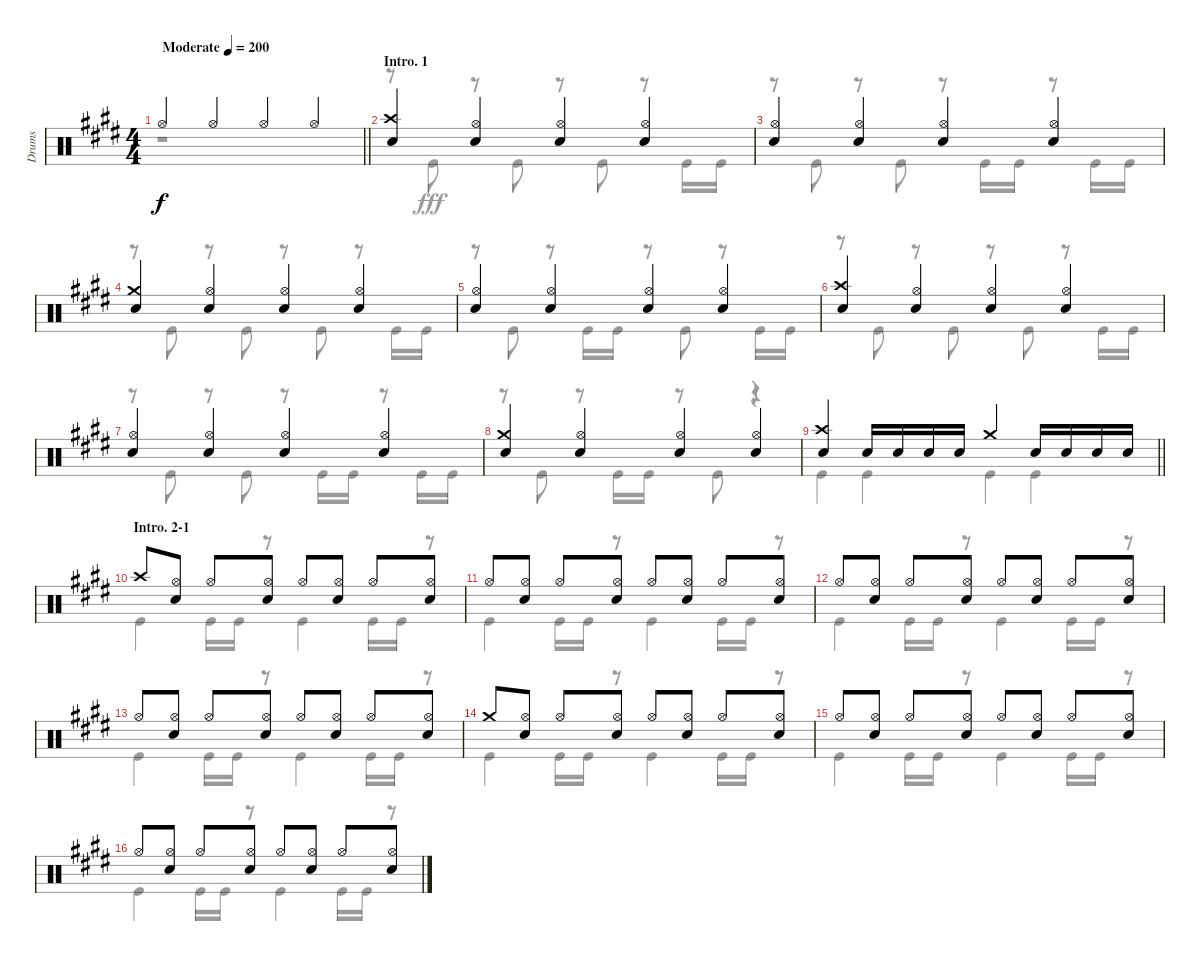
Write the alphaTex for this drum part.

\track ("Drums" "Drums") {instrument percussion}
\staff {score}
\articulation defaults
\voice
\ts (4 4)
\tempo (200 "Moderate")
\clef neutral
\barLineRight lightlight
\ks e "Hi-Hat (open)".4{dy f} "Hi-Hat (open)".4 "Hi-Hat (open)".4 "Hi-Hat (open)".4
|
\section ("" "Intro. 1")
("Crash high (hit)" "Snare (hit) 2").4 ("Hi-Hat (open)" "Snare (hit) 2").4 ("Hi-Hat (open)" "Snare (hit) 2").4 ("Hi-Hat (open)" "Snare (hit) 2").4 |
("Hi-Hat (open)" "Snare (hit) 2").4 ("Hi-Hat (open)" "Snare (hit) 2").4 ("Hi-Hat (open)" "Snare (hit) 2").4 ("Hi-Hat (open)" "Snare (hit) 2").4 |
("Crash medium (hit)" "Snare (hit) 2").4 ("Hi-Hat (open)" "Snare (hit) 2").4 ("Hi-Hat (open)" "Snare (hit) 2").4 ("Hi-Hat (open)" "Snare (hit) 2").4 |
("Hi-Hat (open)" "Snare (hit) 2").4 ("Hi-Hat (open)" "Snare (hit) 2").4 ("Hi-Hat (open)" "Snare (hit) 2").4 ("Hi-Hat (open)" "Snare (hit) 2").4 |
("Crash high (hit)" "Snare (hit) 2").4 ("Hi-Hat (open)" "Snare (hit) 2").4 ("Hi-Hat (open)" "Snare (hit) 2").4 ("Hi-Hat (open)" "Snare (hit) 2").4 |
("Hi-Hat (open)" "Snare (hit) 2").4 ("Hi-Hat (open)" "Snare (hit) 2").4 ("Hi-Hat (open)" "Snare (hit) 2").4 ("Hi-Hat (open)" "Snare (hit) 2").4 |
("Crash medium (hit)" "Snare (hit) 2").4 ("Hi-Hat (open)" "Snare (hit) 2").4 ("Hi-Hat (open)" "Snare (hit) 2").4 ("Hi-Hat (open)" "Snare (hit) 2").4 |
\barLineRight lightlight
("Crash high (hit)" "Snare (hit) 2").4 "Snare (hit) 2".16 "Snare (hit) 2".16 "Snare (hit) 2".16 "Snare (hit) 2".16 "Crash medium (hit)".4 "Snare (hit) 2".16 "Snare (hit) 2".16 "Snare (hit) 2".16 "Snare (hit) 2".16 |
\section ("" "Intro. 2-1")
"Crash high (hit)".8 ("Hi-Hat (open)" "Snare (hit) 2").8 "Hi-Hat (open)".8 ("Hi-Hat (open)" "Snare (hit) 2").8 "Hi-Hat (open)".8 ("Hi-Hat (open)" "Snare (hit) 2").8 "Hi-Hat (open)".8 ("Hi-Hat (open)" "Snare (hit) 2").8 |
"Hi-Hat (open)".8 ("Hi-Hat (open)" "Snare (hit) 2").8 "Hi-Hat (open)".8 ("Hi-Hat (open)" "Snare (hit) 2").8 "Hi-Hat (open)".8 ("Hi-Hat (open)" "Snare (hit) 2").8 "Hi-Hat (open)".8 ("Hi-Hat (open)" "Snare (hit) 2").8 |
"Hi-Hat (open)".8 ("Hi-Hat (open)" "Snare (hit) 2").8 "Hi-Hat (open)".8 ("Hi-Hat (open)" "Snare (hit) 2").8 "Hi-Hat (open)".8 ("Hi-Hat (open)" "Snare (hit) 2").8 "Hi-Hat (open)".8 ("Hi-Hat (open)" "Snare (hit) 2").8 |
"Hi-Hat (open)".8 ("Hi-Hat (open)" "Snare (hit) 2").8 "Hi-Hat (open)".8 ("Hi-Hat (open)" "Snare (hit) 2").8 "Hi-Hat (open)".8 ("Hi-Hat (open)" "Snare (hit) 2").8 "Hi-Hat (open)".8 ("Hi-Hat (open)" "Snare (hit) 2").8 |
"Crash medium (hit)".8 ("Hi-Hat (open)" "Snare (hit) 2").8 "Hi-Hat (open)".8 ("Hi-Hat (open)" "Snare (hit) 2").8 "Hi-Hat (open)".8 ("Hi-Hat (open)" "Snare (hit) 2").8 "Hi-Hat (open)".8 ("Hi-Hat (open)" "Snare (hit) 2").8 |
"Hi-Hat (open)".8 ("Hi-Hat (open)" "Snare (hit) 2").8 "Hi-Hat (open)".8 ("Hi-Hat (open)" "Snare (hit) 2").8 "Hi-Hat (open)".8 ("Hi-Hat (open)" "Snare (hit) 2").8 "Hi-Hat (open)".8 ("Hi-Hat (open)" "Snare (hit) 2").8 |
"Hi-Hat (open)".8 ("Hi-Hat (open)" "Snare (hit) 2").8 "Hi-Hat (open)".8 ("Hi-Hat (open)" "Snare (hit) 2").8 "Hi-Hat (open)".8 ("Hi-Hat (open)" "Snare (hit) 2").8 "Hi-Hat (open)".8 ("Hi-Hat (open)" "Snare (hit) 2").8
\voice
\clef neutral
\ottava regular
\simile none
\barLineRight lightlight
\ks e
r.1{dy fff} |
r.8 "Kick (hit)".8 r.8 "Kick (hit)".8 r.8 "Kick (hit)".8 r.8 "Kick (hit)".16 "Kick (hit)".16 |
r.8 "Kick (hit)".8 r.8 "Kick (hit)".8 r.8 "Kick (hit)".16 "Kick (hit)".16 r.8 "Kick (hit)".16 "Kick (hit)".16 |
r.8 "Kick (hit)".8 r.8 "Kick (hit)".8 r.8 "Kick (hit)".8 r.8 "Kick (hit)".16 "Kick (hit)".16 |
r.8 "Kick (hit)".8 r.8 "Kick (hit)".16 "Kick (hit)".16 r.8 "Kick (hit)".8 r.8 "Kick (hit)".16 "Kick (hit)".16 |
r.8 "Kick (hit)".8 r.8 "Kick (hit)".8 r.8 "Kick (hit)".8 r.8 "Kick (hit)".16 "Kick (hit)".16 |
r.8 "Kick (hit)".8 r.8 "Kick (hit)".8 r.8 "Kick (hit)".16 "Kick (hit)".16 r.8 "Kick (hit)".16 "Kick (hit)".16 |
r.8 "Kick (hit)".8 r.8 "Kick (hit)".16 "Kick (hit)".16 r.8 "Kick (hit)".8 r.4 |
\barLineRight lightlight "Kick (hit)".4 "Kick (hit)".4 "Kick (hit)".4 "Kick (hit)".4
|
"Kick (hit)".4 "Kick (hit)".16 "Kick (hit)".16 r.8 "Kick (hit)".4 "Kick (hit)".16 "Kick (hit)".16 r.8 |
"Kick (hit)".4 "Kick (hit)".16 "Kick (hit)".16 r.8 "Kick (hit)".4 "Kick (hit)".16 "Kick (hit)".16 r.8 |
"Kick (hit)".4 "Kick (hit)".16 "Kick (hit)".16 r.8 "Kick (hit)".4 "Kick (hit)".16 "Kick (hit)".16 r.8 |
"Kick (hit)".4 "Kick (hit)".16 "Kick (hit)".16 r.8 "Kick (hit)".4 "Kick (hit)".16 "Kick (hit)".16 r.8 |
"Kick (hit)".4 "Kick (hit)".16 "Kick (hit)".16 r.8 "Kick (hit)".4 "Kick (hit)".16 "Kick (hit)".16 r.8 |
"Kick (hit)".4 "Kick (hit)".16 "Kick (hit)".16 r.8 "Kick (hit)".4 "Kick (hit)".16 "Kick (hit)".16 r.8 |
"Kick (hit)".4 "Kick (hit)".16 "Kick (hit)".16 r.8 "Kick (hit)".4 "Kick (hit)".16 "Kick (hit)".16 r.8
